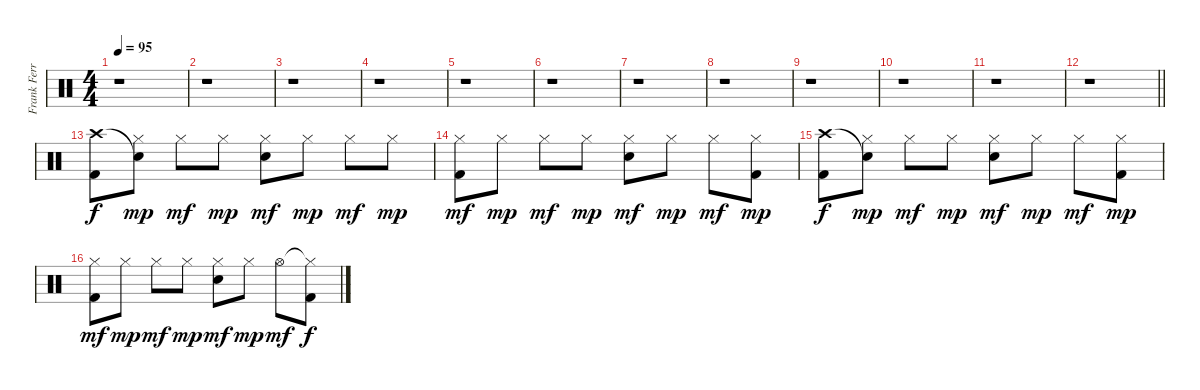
\track ("Frank Ferrer - Drums" "Frank Ferr") {instrument percussion}
\staff {score}
\articulation defaults
\ts (4 4)
\tempo 95
\clef neutral
\ks c
r.1{dy f} |
r.1 |
r.1 |
r.1 |
r.1 |
r.1 |
r.1 |
r.1 |
r.1 |
r.1 |
r.1 |
\barLineRight lightlight
r.1 |
("Crash high (hit)" "Kick (hit) 2").8 ("Snare (hit)"{t} "Hi-Hat (closed)").8{dy mp} "Hi-Hat (closed)".8{dy mf} "Hi-Hat (closed)".8{dy mp} ("Hi-Hat (closed)" "Electric Snare (hit)").8{dy mf} "Hi-Hat (closed)".8{dy mp} "Hi-Hat (closed)".8{dy mf} "Hi-Hat (closed)".8{dy mp} |
("Hi-Hat (closed)" "Kick (hit) 2").8{dy mf} "Hi-Hat (closed)".8{dy mp} "Hi-Hat (closed)".8{dy mf} "Hi-Hat (closed)".8{dy mp} ("Hi-Hat (closed)" "Electric Snare (hit)").8{dy mf} "Hi-Hat (closed)".8{dy mp} "Hi-Hat (closed)".8{dy mf} ("Hi-Hat (closed)" "Kick (hit) 2").8{dy mp} |
("Crash high (hit)" "Kick (hit) 2").8{dy f} ("Snare (hit)"{t} "Hi-Hat (closed)").8{dy mp} "Hi-Hat (closed)".8{dy mf} "Hi-Hat (closed)".8{dy mp} ("Hi-Hat (closed)" "Electric Snare (hit)").8{dy mf} "Hi-Hat (closed)".8{dy mp} "Hi-Hat (closed)".8{dy mf} ("Hi-Hat (closed)" "Kick (hit) 2").8{dy mp} |
("Hi-Hat (closed)" "Kick (hit) 2").8{dy mf} "Hi-Hat (closed)".8{dy mp} "Hi-Hat (closed)".8{dy mf} "Hi-Hat (closed)".8{dy mp} ("Hi-Hat (closed)" "Electric Snare (hit)").8{dy mf} "Hi-Hat (closed)".8{dy mp} "Hi-Hat (open)".8{dy mf} ("Hi-Hat (closed)"{t} "Kick (hit) 2").8{dy f}
